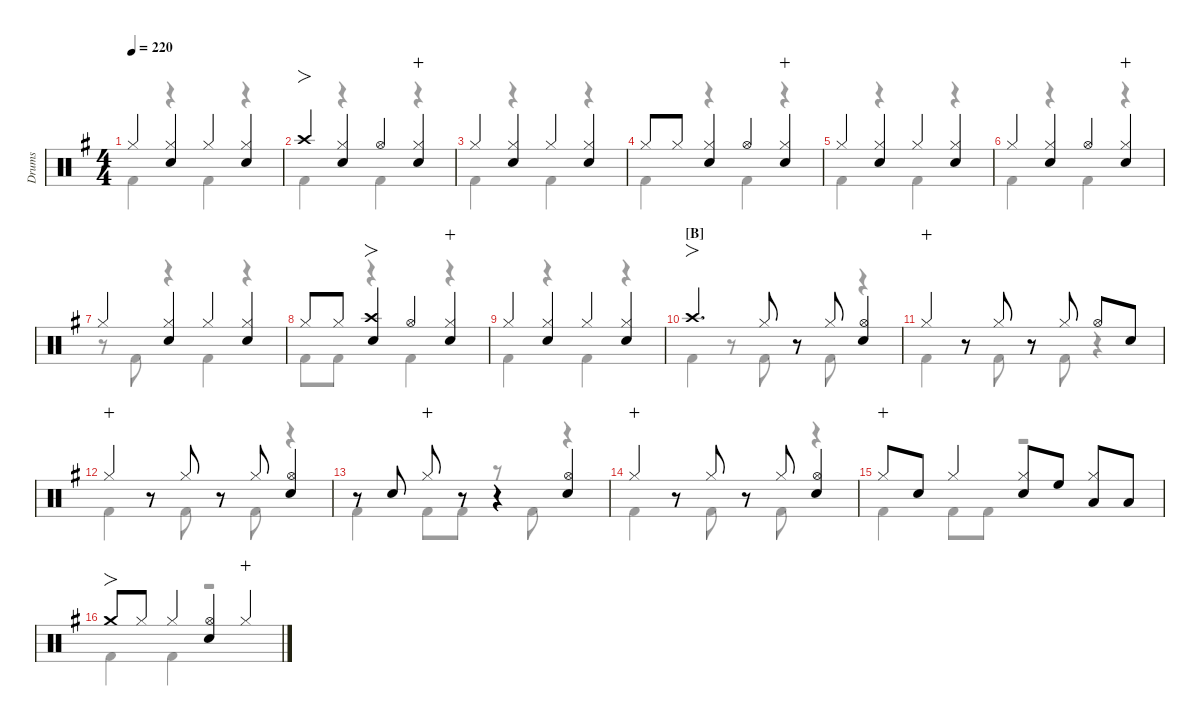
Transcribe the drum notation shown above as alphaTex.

\hideDynamics
\bracketExtendMode nobrackets
\multiBarRest
\otherSystemsTrackNameOrientation horizontal
\track ("Drums" "Drums") {defaultSystemsLayout 4 multiBarRest instrument percussion}
\staff {score}
\articulation defaults
\voice
\ts (4 4)
\tempo 220
\clef neutral
\scale
0.97879
\ks g "Hi-Hat (closed)"{acc forcenatural}.4{dy f beam Up}
("Hi-Hat (closed)"{acc forcenatural} "Snare (hit) 2"{acc forcenatural}).4{beam Up} "Hi-Hat (closed)"{acc forcenatural}.4{beam Up} ("Hi-Hat (closed)"{acc forcenatural} "Snare (hit) 2"{acc forcenatural}).4{beam Up} |
\scale
1.06363 "Crash high (hit)"{acc forcenatural}.4{fo beam Up} ("Snare (hit) 2"{acc forcenatural} "Hi-Hat (closed)"{acc forcenatural}).4{beam Up} "Hi-Hat (open)"{acc forcenatural}.4{beam Up} ("Snare (hit) 2"{acc forcenatural} "Hi-Hat (closed)"{acc forcenatural}).4{wahc beam Up} |
\scale
0.97879 "Hi-Hat (closed)"{acc forcenatural}.4{beam Up} ("Hi-Hat (closed)"{acc forcenatural} "Snare (hit) 2"{acc forcenatural}).4{beam Up} "Hi-Hat (closed)"{acc forcenatural}.4{beam Up} ("Hi-Hat (closed)"{acc forcenatural} "Snare (hit) 2"{acc forcenatural}).4{beam Up} |
\scale
0.97879 "Hi-Hat (closed)"{acc forcenatural}.8{beam Up} "Hi-Hat (closed)"{acc forcenatural}.8{dy mf beam Up} ("Snare (hit) 2"{acc forcenatural} "Hi-Hat (closed)"{acc forcenatural}).4{dy f beam Up} "Hi-Hat (open)"{acc forcenatural}.4{beam Up} ("Snare (hit) 2"{acc forcenatural} "Hi-Hat (closed)"{acc forcenatural}).4{wahc beam Up} |
\scale
0.97879 "Hi-Hat (closed)"{acc forcenatural}.4{beam Up} ("Hi-Hat (closed)"{acc forcenatural} "Snare (hit) 2"{acc forcenatural}).4{beam Up} "Hi-Hat (closed)"{acc forcenatural}.4{beam Up} ("Hi-Hat (closed)"{acc forcenatural} "Snare (hit) 2"{acc forcenatural}).4{beam Up} |
\scale
1.05921 "Hi-Hat (closed)"{acc forcenatural}.4{beam Up} ("Hi-Hat (closed)"{acc forcenatural} "Snare (hit) 2"{acc forcenatural}).4{beam Up} "Hi-Hat (open)"{acc forcenatural}.4{beam Up} ("Snare (hit) 2"{acc forcenatural} "Hi-Hat (closed)"{acc forcenatural}).4{wahc beam Up} |
\scale
0.974368 "Hi-Hat (closed)"{acc forcenatural}.4{beam Up} ("Snare (hit) 2"{acc forcenatural} "Hi-Hat (closed)"{acc forcenatural}).4{beam Up} "Hi-Hat (closed)"{acc forcenatural}.4{beam Up} ("Hi-Hat (closed)"{acc forcenatural} "Snare (hit) 2"{acc forcenatural}).4{beam Up} |
\scale
0.974368 "Hi-Hat (closed)"{acc forcenatural}.8{beam Up} "Hi-Hat (closed)"{acc forcenatural}.8{dy mf beam Up} ("Snare (hit) 2"{acc forcenatural} "Crash high (hit)"{acc forcenatural}).4{fo dy f beam Up} "Hi-Hat (open)"{acc forcenatural}.4{beam Up} ("Snare (hit) 2"{acc forcenatural} "Hi-Hat (closed)"{acc forcenatural}).4{wahc beam Up} |
\scale
0.992053 "Hi-Hat (closed)"{acc forcenatural}.4{beam Up} ("Snare (hit) 2"{acc forcenatural} "Hi-Hat (closed)"{acc forcenatural}).4{beam Up} "Hi-Hat (closed)"{acc forcenatural}.4{beam Up} ("Hi-Hat (closed)"{acc forcenatural} "Snare (hit) 2"{acc forcenatural}).4{beam Up} |
\section ("B" "")
\scale
1.06363 "Crash high (hit)"{acc forcenatural}.4{fo d beam Up} "Hi-Hat (closed)"{acc forcenatural}.8{beam Up} r.8{beam Up} "Hi-Hat (closed)"{acc forcenatural}.8{beam Up} ("Hi-Hat (open)"{acc forcenatural} "Snare (hit) 2"{acc forcenatural}).4{beam Up} |
\scale
0.97879 "Hi-Hat (closed)"{acc forcenatural}.4{dy mp wahc beam Up} r.8{beam Up} "Hi-Hat (closed)"{acc forcenatural}.8{dy f beam Up} r.8{beam Up} "Hi-Hat (closed)"{acc forcenatural}.8{beam Up} "Hi-Hat (open)"{acc forcenatural}.8{beam Up} "Snare (hit) 2"{acc forcenatural}.8{dy mf beam Up} |
\scale
0.97879 "Hi-Hat (closed)"{acc forcenatural}.4{dy mp wahc beam Up} r.8{beam Up} "Hi-Hat (closed)"{acc forcenatural}.8{dy f beam Up} r.8{beam Up} "Hi-Hat (closed)"{acc forcenatural}.8{beam Up} ("Hi-Hat (open)"{acc forcenatural} "Snare (hit) 2"{acc forcenatural}).4{beam Up} |
\scale
0.97879 r.8{beam Up} "Snare (hit) 2"{acc forcenatural}.8{beam Up} "Hi-Hat (closed)"{acc forcenatural}.8{dy mp wahc beam Up} r.8{beam Up} r.4{beam Up} ("Snare (hit) 2"{acc forcenatural} "Hi-Hat (open)"{acc forcenatural}).4{dy f beam Up} |
\scale
1.06363 "Hi-Hat (closed)"{acc forcenatural}.4{dy mp wahc beam Up} r.8{beam Up} "Hi-Hat (closed)"{acc forcenatural}.8{dy f beam Up} r.8{beam Up} "Hi-Hat (closed)"{acc forcenatural}.8{beam Up} ("Hi-Hat (open)"{acc forcenatural} "Snare (hit) 2"{acc forcenatural}).4{beam Up} |
\scale
0.97879 "Hi-Hat (closed)"{acc forcenatural}.8{dy mp wahc beam Up} "Snare (hit) 2"{acc forcenatural}.8{dy f beam Up} "Hi-Hat (closed)"{acc forcenatural}.4{beam Up} ("Snare (hit) 2"{acc forcenatural} "Hi-Hat (closed)"{acc forcenatural}).8{beam Up} "High Floor Tom (hit)"{acc forcenatural}.8{dy fff beam Up} ("Low Tom (hit)"{acc forcenatural} "Hi-Hat (closed)"{acc forcenatural}).8{dy f beam Up} "Low Tom (hit)"{acc forcenatural}.8{dy fff beam Up} |
\scale
0.97879 "Crash medium (hit)"{acc forcenatural}.8{fo dy f beam Up} "Hi-Hat (closed)"{acc forcenatural}.8{dy mp beam Up} "Hi-Hat (closed)"{acc forcenatural}.4{dy f beam Up} ("Hi-Hat (open)"{acc forcenatural} "Snare (hit) 2"{acc forcenatural}).4{beam Up} "Hi-Hat (closed)"{acc forcenatural}.4{wahc beam Up}
\voice
\clef neutral
\ottava regular
\simile none
\scale
0.97879
\ks g "Kick (hit) 2"{acc forcenatural}.4{dy f beam Down}
r.4{beam Down} "Kick (hit) 2"{acc forcenatural}.4{beam Down} r.4{beam Down} |
\scale
1.06363 "Kick (hit) 2"{acc forcenatural}.4{beam Down} r.4{beam Down} "Kick (hit) 2"{acc forcenatural}.4{beam Down} r.4{beam Down} |
\scale
0.97879 "Kick (hit) 2"{acc forcenatural}.4{beam Down} r.4{beam Down} "Kick (hit) 2"{acc forcenatural}.4{beam Down} r.4{beam Down} |
\scale
0.97879 "Kick (hit) 2"{acc forcenatural}.4{beam Down} r.4{beam Down} "Kick (hit) 2"{acc forcenatural}.4{beam Down} r.4{beam Down} |
\scale
0.97879 "Kick (hit) 2"{acc forcenatural}.4{beam Down} r.4{beam Down} "Kick (hit) 2"{acc forcenatural}.4{beam Down} r.4{beam Down} |
\scale
1.05921 "Kick (hit) 2"{acc forcenatural}.4{beam Down} r.4{beam Down} "Kick (hit) 2"{acc forcenatural}.4{beam Down} r.4{beam Down} |
\scale
0.974368 r.8{beam Down} "Kick (hit) 2"{acc forcenatural}.8{beam Down} r.4{beam Down} "Kick (hit) 2"{acc forcenatural}.4{beam Down} r.4{beam Down} |
\scale
0.974368 "Kick (hit) 2"{acc forcenatural}.8{beam Down} "Kick (hit) 2"{acc forcenatural}.8{beam Down} r.4{beam Down} "Kick (hit) 2"{acc forcenatural}.4{beam Down} r.4{beam Down} |
\scale
0.992053 "Kick (hit) 2"{acc forcenatural}.4{beam Down} r.4{beam Down} "Kick (hit) 2"{acc forcenatural}.4{beam Down} r.4{beam Down} |
\scale
1.06363 "Kick (hit) 2"{acc forcenatural}.4{beam Down} r.8{beam Down} "Kick (hit) 2"{acc forcenatural}.8{beam Down} r.8{beam Down} "Kick (hit) 2"{acc forcenatural}.8{beam Down} r.4{beam Down} |
\scale
0.97879 "Kick (hit) 2"{acc forcenatural}.4{beam Down} r.8{beam Down} "Kick (hit) 2"{acc forcenatural}.8{beam Down} r.8{beam Down} "Kick (hit) 2"{acc forcenatural}.8{beam Down} r.4{beam Down} |
\scale
0.97879 "Kick (hit) 2"{acc forcenatural}.4{beam Down} r.8{beam Down} "Kick (hit) 2"{acc forcenatural}.8{beam Down} r.8{beam Down} "Kick (hit) 2"{acc forcenatural}.8{beam Down} r.4{beam Down} |
\scale
0.97879 "Kick (hit) 2"{acc forcenatural}.4{beam Down} "Kick (hit) 2"{acc forcenatural}.8{beam Down} "Kick (hit) 2"{acc forcenatural}.8{beam Down} r.8{beam Down} "Kick (hit) 2"{acc forcenatural}.8{beam Down} r.4{beam Down} |
\scale
1.06363 "Kick (hit) 2"{acc forcenatural}.4{beam Down} r.8{beam Down} "Kick (hit) 2"{acc forcenatural}.8{beam Down} r.8{beam Down} "Kick (hit) 2"{acc forcenatural}.8{beam Down} r.4{beam Down} |
\scale
0.97879 "Kick (hit) 2"{acc forcenatural}.4{beam Down} "Kick (hit) 2"{acc forcenatural}.8{beam Down} "Kick (hit) 2"{acc forcenatural}.8{beam Down} r.2{beam Down} |
\scale
0.97879 "Kick (hit) 2"{acc forcenatural}.4{beam Down} "Kick (hit) 2"{acc forcenatural}.4{beam Down} r.2{beam Down}
